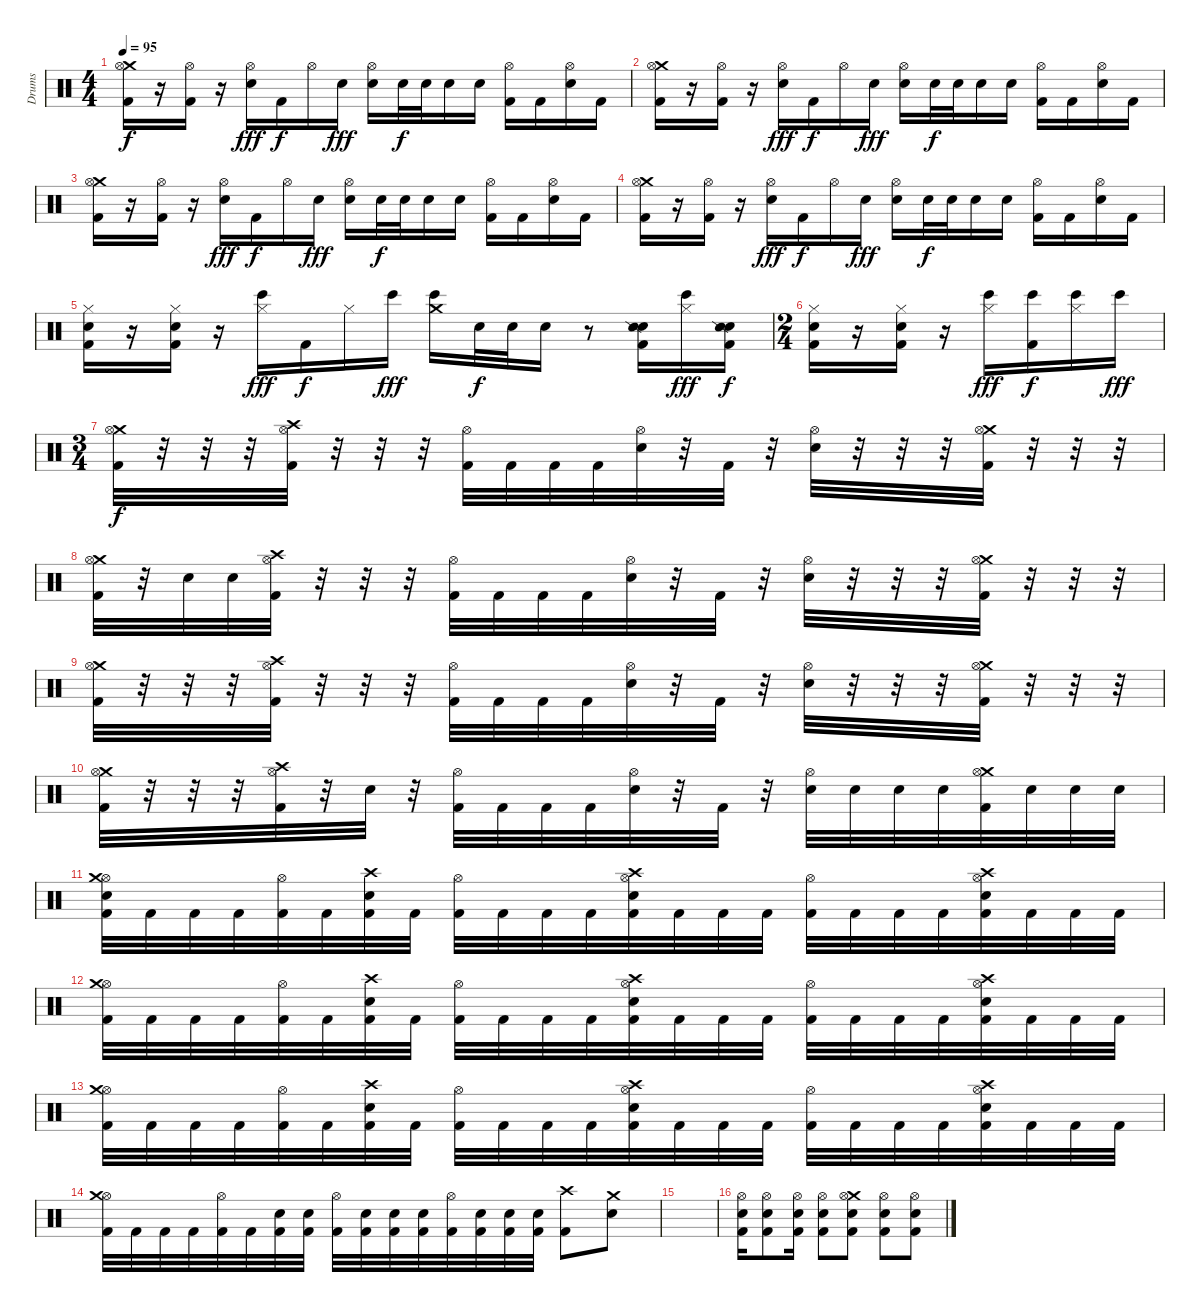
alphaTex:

\track ("Drums" "Drums") {instrument percussion}
\staff {score}
\articulation defaults
\ts (4 4)
\tempo 95
\clef neutral
\ks c
("Crash medium (hit)" "Hi-Hat (open)" "Kick (hit) 2").16{dy f} r.16 ("Hi-Hat (open)" "Kick (hit) 2").16 r.16 ("Hi-Hat (open)" "Electric Snare (hit)").16{dy fff} "Kick (hit) 2".16{dy f} "Hi-Hat (open)".16 "Electric Snare (hit)".16{dy fff} ("Hi-Hat (open)" "Electric Snare (hit)").16 "Electric Snare (hit)".32{dy f} "Electric Snare (hit)".32 "Electric Snare (hit)".16 "Electric Snare (hit)".16 ("Hi-Hat (open)" "Kick (hit) 2").16 "Kick (hit) 2".16 ("Hi-Hat (open)" "Electric Snare (hit)").16 "Kick (hit) 2".16 |
("Crash medium (hit)" "Hi-Hat (open)" "Kick (hit) 2").16 r.16 ("Hi-Hat (open)" "Kick (hit) 2").16 r.16 ("Hi-Hat (open)" "Electric Snare (hit)").16{dy fff} "Kick (hit) 2".16{dy f} "Hi-Hat (open)".16 "Electric Snare (hit)".16{dy fff} ("Hi-Hat (open)" "Electric Snare (hit)").16 "Electric Snare (hit)".32{dy f} "Electric Snare (hit)".32 "Electric Snare (hit)".16 "Electric Snare (hit)".16 ("Hi-Hat (open)" "Kick (hit) 2").16 "Kick (hit) 2".16 ("Hi-Hat (open)" "Electric Snare (hit)").16 "Kick (hit) 2".16 |
("Crash medium (hit)" "Hi-Hat (open)" "Kick (hit) 2").16 r.16 ("Hi-Hat (open)" "Kick (hit) 2").16 r.16 ("Hi-Hat (open)" "Electric Snare (hit)").16{dy fff} "Kick (hit) 2".16{dy f} "Hi-Hat (open)".16 "Electric Snare (hit)".16{dy fff} ("Hi-Hat (open)" "Electric Snare (hit)").16 "Electric Snare (hit)".32{dy f} "Electric Snare (hit)".32 "Electric Snare (hit)".16 "Electric Snare (hit)".16 ("Hi-Hat (open)" "Kick (hit) 2").16 "Kick (hit) 2".16 ("Hi-Hat (open)" "Electric Snare (hit)").16 "Kick (hit) 2".16 |
("Crash medium (hit)" "Hi-Hat (open)" "Kick (hit) 2").16 r.16 ("Hi-Hat (open)" "Kick (hit) 2").16 r.16 ("Hi-Hat (open)" "Electric Snare (hit)").16{dy fff} "Kick (hit) 2".16{dy f} "Hi-Hat (open)".16 "Electric Snare (hit)".16{dy fff} ("Hi-Hat (open)" "Electric Snare (hit)").16 "Electric Snare (hit)".32{dy f} "Electric Snare (hit)".32 "Electric Snare (hit)".16 "Electric Snare (hit)".16 ("Hi-Hat (open)" "Kick (hit) 2").16 "Kick (hit) 2".16 ("Hi-Hat (open)" "Electric Snare (hit)").16 "Kick (hit) 2".16 |
("Metronome (bell)" "Hi-Hat (closed)" "Kick (hit) 2").16 r.16 ("Metronome (bell)" "Hi-Hat (closed)" "Kick (hit) 2").16 r.16 ("Hi-Hat (closed)" "Bongo High (hit)").16{dy fff} "Kick (hit) 2".16{dy f} "Hi-Hat (closed)".16 "Bongo High (hit)".16{dy fff} ("Crash medium (hit)" "Bongo High (hit)").16 "Metronome (bell)".32{dy f} "Metronome (bell)".32 "Metronome (bell)".16 r.8 ("Metronome (bell)" "Snare (side stick) 2" "Kick (hit) 2").16 ("Hi-Hat (closed)" "Bongo High (hit)").16{dy fff} ("Metronome (bell)" "Snare (side stick) 2" "Kick (hit) 2").16{dy f} |
\ts (2 4)
("Metronome (bell)" "Hi-Hat (closed)" "Kick (hit) 2").16 r.16 ("Metronome (bell)" "Hi-Hat (closed)" "Kick (hit) 2").16 r.16 ("Hi-Hat (closed)" "Bongo High (hit)").16{dy fff} ("Bongo High (hit)" "Kick (hit) 2").16{dy f} ("Hi-Hat (closed)" "Bongo High (hit)").16 "Bongo High (hit)".16{dy fff} |
\ts (3 4)
("Crash medium (hit)" "Hi-Hat (open)" "Kick (hit) 2").32{dy f} r.32 r.32 r.32 ("Crash high (hit)" "Hi-Hat (open)" "Kick (hit) 2").32 r.32 r.32 r.32 ("Hi-Hat (open)" "Kick (hit) 2").32 "Kick (hit) 2".32 "Kick (hit) 2".32 "Kick (hit) 2".32 ("Hi-Hat (open)" "Electric Snare (hit)").32 r.32 "Kick (hit) 2".32 r.32 ("Hi-Hat (open)" "Electric Snare (hit)").32 r.32 r.32 r.32 ("Crash medium (hit)" "Hi-Hat (open)" "Kick (hit) 2").32 r.32 r.32 r.32 |
("Crash medium (hit)" "Hi-Hat (open)" "Kick (hit) 2").32 r.32 "Electric Snare (hit)".32 "Electric Snare (hit)".32 ("Crash high (hit)" "Hi-Hat (open)" "Kick (hit) 2").32 r.32 r.32 r.32 ("Hi-Hat (open)" "Kick (hit) 2").32 "Kick (hit) 2".32 "Kick (hit) 2".32 "Kick (hit) 2".32 ("Hi-Hat (open)" "Electric Snare (hit)").32 r.32 "Kick (hit) 2".32 r.32 ("Hi-Hat (open)" "Electric Snare (hit)").32 r.32 r.32 r.32 ("Crash medium (hit)" "Hi-Hat (open)" "Kick (hit) 2").32 r.32 r.32 r.32 |
("Crash medium (hit)" "Hi-Hat (open)" "Kick (hit) 2").32 r.32 r.32 r.32 ("Crash high (hit)" "Hi-Hat (open)" "Kick (hit) 2").32 r.32 r.32 r.32 ("Hi-Hat (open)" "Kick (hit) 2").32 "Kick (hit) 2".32 "Kick (hit) 2".32 "Kick (hit) 2".32 ("Hi-Hat (open)" "Electric Snare (hit)").32 r.32 "Kick (hit) 2".32 r.32 ("Hi-Hat (open)" "Electric Snare (hit)").32 r.32 r.32 r.32 ("Crash medium (hit)" "Hi-Hat (open)" "Kick (hit) 2").32 r.32 r.32 r.32 |
("Crash medium (hit)" "Hi-Hat (open)" "Kick (hit) 2").32 r.32 r.32 r.32 ("Crash high (hit)" "Hi-Hat (open)" "Kick (hit) 2").32 r.32 "Electric Snare (hit)".32 r.32 ("Hi-Hat (open)" "Kick (hit) 2").32 "Kick (hit) 2".32 "Kick (hit) 2".32 "Kick (hit) 2".32 ("Hi-Hat (open)" "Electric Snare (hit)").32 r.32 "Kick (hit) 2".32 r.32 ("Hi-Hat (open)" "Electric Snare (hit)").32 "Electric Snare (hit)".32 "Electric Snare (hit)".32 "Electric Snare (hit)".32 ("Crash medium (hit)" "Hi-Hat (open)" "Kick (hit) 2").32 "Electric Snare (hit)".32 "Electric Snare (hit)".32 "Electric Snare (hit)".32 |
("Hi-Hat (open)" "Crash medium (hit)" "Electric Snare (hit)" "Kick (hit) 2").32 "Kick (hit) 2".32 "Kick (hit) 2".32 "Kick (hit) 2".32 ("Hi-Hat (open)" "Kick (hit) 2").32 "Kick (hit) 2".32 ("Crash high (hit)" "Electric Snare (hit)" "Kick (hit) 2").32 "Kick (hit) 2".32 ("Hi-Hat (open)" "Kick (hit) 2").32 "Kick (hit) 2".32 "Kick (hit) 2".32 "Kick (hit) 2".32 ("Hi-Hat (open)" "Electric Snare (hit)" "Crash high (hit)" "Kick (hit) 2").32 "Kick (hit) 2".32 "Kick (hit) 2".32 "Kick (hit) 2".32 ("Hi-Hat (open)" "Kick (hit) 2").32 "Kick (hit) 2".32 "Kick (hit) 2".32 "Kick (hit) 2".32 ("Hi-Hat (open)" "Crash high (hit)" "Electric Snare (hit)" "Kick (hit) 2").32 "Kick (hit) 2".32 "Kick (hit) 2".32 "Kick (hit) 2".32 |
("Hi-Hat (open)" "Crash medium (hit)" "Kick (hit) 2").32 "Kick (hit) 2".32 "Kick (hit) 2".32 "Kick (hit) 2".32 ("Hi-Hat (open)" "Kick (hit) 2").32 "Kick (hit) 2".32 ("Crash high (hit)" "Electric Snare (hit)" "Kick (hit) 2").32 "Kick (hit) 2".32 ("Hi-Hat (open)" "Kick (hit) 2").32 "Kick (hit) 2".32 "Kick (hit) 2".32 "Kick (hit) 2".32 ("Hi-Hat (open)" "Electric Snare (hit)" "Crash high (hit)" "Kick (hit) 2").32 "Kick (hit) 2".32 "Kick (hit) 2".32 "Kick (hit) 2".32 ("Hi-Hat (open)" "Kick (hit) 2").32 "Kick (hit) 2".32 "Kick (hit) 2".32 "Kick (hit) 2".32 ("Hi-Hat (open)" "Crash high (hit)" "Electric Snare (hit)" "Kick (hit) 2").32 "Kick (hit) 2".32 "Kick (hit) 2".32 "Kick (hit) 2".32 |
("Hi-Hat (open)" "Crash medium (hit)" "Kick (hit) 2").32 "Kick (hit) 2".32 "Kick (hit) 2".32 "Kick (hit) 2".32 ("Hi-Hat (open)" "Kick (hit) 2").32 "Kick (hit) 2".32 ("Crash high (hit)" "Electric Snare (hit)" "Kick (hit) 2").32 "Kick (hit) 2".32 ("Hi-Hat (open)" "Kick (hit) 2").32 "Kick (hit) 2".32 "Kick (hit) 2".32 "Kick (hit) 2".32 ("Hi-Hat (open)" "Electric Snare (hit)" "Crash high (hit)" "Kick (hit) 2").32 "Kick (hit) 2".32 "Kick (hit) 2".32 "Kick (hit) 2".32 ("Hi-Hat (open)" "Kick (hit) 2").32 "Kick (hit) 2".32 "Kick (hit) 2".32 "Kick (hit) 2".32 ("Hi-Hat (open)" "Crash high (hit)" "Electric Snare (hit)" "Kick (hit) 2").32 "Kick (hit) 2".32 "Kick (hit) 2".32 "Kick (hit) 2".32 |
("Hi-Hat (open)" "Crash medium (hit)" "Kick (hit) 2").32 "Kick (hit) 2".32 "Kick (hit) 2".32 "Kick (hit) 2".32 ("Hi-Hat (open)" "Kick (hit) 2").32 "Kick (hit) 2".32 ("Electric Snare (hit)" "Kick (hit) 2").32 ("Electric Snare (hit)" "Kick (hit) 2").32 ("Hi-Hat (open)" "Kick (hit) 2").32 ("Electric Snare (hit)" "Kick (hit) 2").32 ("Electric Snare (hit)" "Kick (hit) 2").32 ("Electric Snare (hit)" "Kick (hit) 2").32 ("Hi-Hat (open)" "Kick (hit) 2").32 ("Electric Snare (hit)" "Kick (hit) 2").32 ("Electric Snare (hit)" "Kick (hit) 2").32 ("Electric Snare (hit)" "Kick (hit) 2").32 ("Crash high (hit)" "Kick (hit) 2").8 ("Crash medium (hit)" "Electric Snare (hit)").8 |
|
("Hi-Hat (open)" "Electric Snare (hit)" "Kick (hit) 2").16 ("Hi-Hat (open)" "Electric Snare (hit)" "Kick (hit) 2").8 ("Hi-Hat (open)" "Electric Snare (hit)" "Kick (hit) 2").16 ("Hi-Hat (open)" "Electric Snare (hit)" "Kick (hit) 2").8 ("Crash medium (hit)" "Hi-Hat (open)" "Electric Snare (hit)" "Kick (hit) 2").8 ("Hi-Hat (open)" "Electric Snare (hit)" "Kick (hit) 2").8 ("Hi-Hat (open)" "Electric Snare (hit)" "Kick (hit) 2").8
